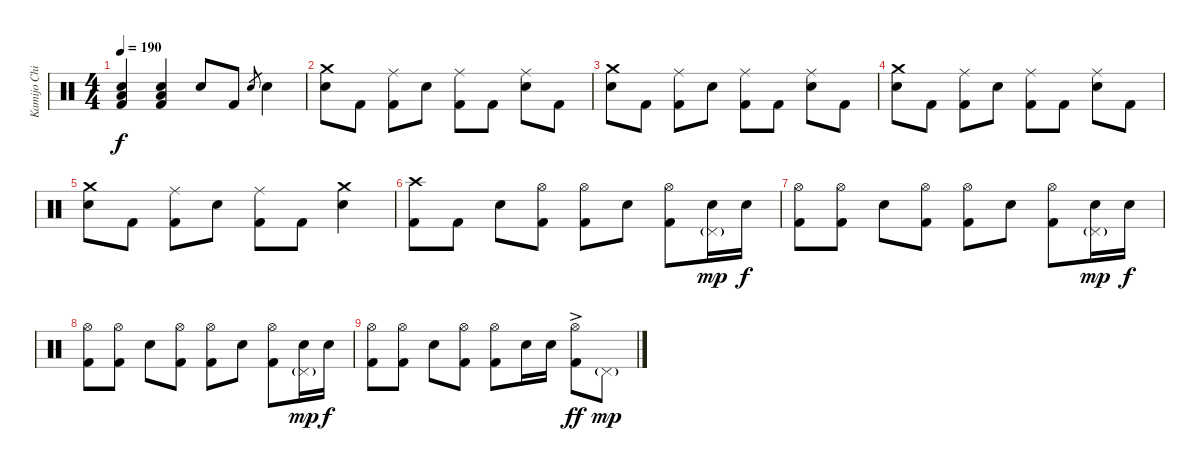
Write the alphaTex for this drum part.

\track ("Kamijo Chihiro" "Kamijo Chi") {instrument percussion}
\staff {score}
\articulation defaults
\ts (4 4)
\tempo 190
\clef neutral
\ks c
("Snare (hit) 2" "Low Floor Tom (hit)" "Kick (hit) 2").4{dy f} ("Snare (hit) 2" "Low Floor Tom (hit)" "Kick (hit) 2").4 "Snare (hit) 2".8 "Kick (hit) 2".8 "Snare (hit) 2".8{gr} "Snare (hit) 2".4 |
("Crash medium (hit)" "Snare (hit) 2").8 "Kick (hit) 2".8 ("Ride (middle)" "Kick (hit) 2").8 "Snare (hit) 2".8 ("Ride (middle)" "Kick (hit) 2").8 "Kick (hit) 2".8 ("Ride (middle)" "Snare (hit) 2").8 "Kick (hit) 2".8 |
("Crash medium (hit)" "Snare (hit) 2").8 "Kick (hit) 2".8 ("Ride (middle)" "Kick (hit) 2").8 "Snare (hit) 2".8 ("Ride (middle)" "Kick (hit) 2").8 "Kick (hit) 2".8 ("Ride (middle)" "Snare (hit) 2").8 "Kick (hit) 2".8 |
("Crash medium (hit)" "Snare (hit) 2").8 "Kick (hit) 2".8 ("Ride (middle)" "Kick (hit) 2").8 "Snare (hit) 2".8 ("Ride (middle)" "Kick (hit) 2").8 "Kick (hit) 2".8 ("Ride (middle)" "Snare (hit) 2").8 "Kick (hit) 2".8 |
("Crash medium (hit)" "Snare (hit) 2").8 "Kick (hit) 2".8 ("Ride (middle)" "Kick (hit) 2").8 "Snare (hit) 2".8 ("Ride (middle)" "Kick (hit) 2").8 "Kick (hit) 2".8 ("Crash medium (hit)" "Snare (hit) 2").4 |
("Crash high (hit)" "Kick (hit) 2").8 "Kick (hit) 2".8 "Snare (hit) 2".8 ("Hi-Hat (open)" "Kick (hit) 2").8 ("Hi-Hat (open)" "Kick (hit) 2").8 "Snare (hit) 2".8 ("Hi-Hat (open)" "Kick (hit) 2").8 ("Pedal Hi-Hat (hit)"{g} "Snare (hit) 2").16{dy mp} "Snare (hit) 2".16{dy f} |
("Hi-Hat (open)" "Kick (hit) 2").8 ("Hi-Hat (open)" "Kick (hit) 2").8 "Snare (hit) 2".8 ("Hi-Hat (open)" "Kick (hit) 2").8 ("Hi-Hat (open)" "Kick (hit) 2").8 "Snare (hit) 2".8 ("Hi-Hat (open)" "Kick (hit) 2").8 ("Pedal Hi-Hat (hit)"{g} "Snare (hit) 2").16{dy mp} "Snare (hit) 2".16{dy f} |
("Hi-Hat (open)" "Kick (hit) 2").8 ("Hi-Hat (open)" "Kick (hit) 2").8 "Snare (hit) 2".8 ("Hi-Hat (open)" "Kick (hit) 2").8 ("Hi-Hat (open)" "Kick (hit) 2").8 "Snare (hit) 2".8 ("Hi-Hat (open)" "Kick (hit) 2").8 ("Pedal Hi-Hat (hit)"{g} "Snare (hit) 2").16{dy mp} "Snare (hit) 2".16{dy f} |
("Hi-Hat (open)" "Kick (hit) 2").8 ("Hi-Hat (open)" "Kick (hit) 2").8 "Snare (hit) 2".8 ("Hi-Hat (open)" "Kick (hit) 2").8 ("Hi-Hat (open)" "Kick (hit) 2").8 "Snare (hit) 2".16 "Snare (hit) 2".16 ("Hi-Hat (open)"{ac} "Kick (hit) 2").8{dy ff} "Pedal Hi-Hat (hit)"{g}.8{dy mp}
